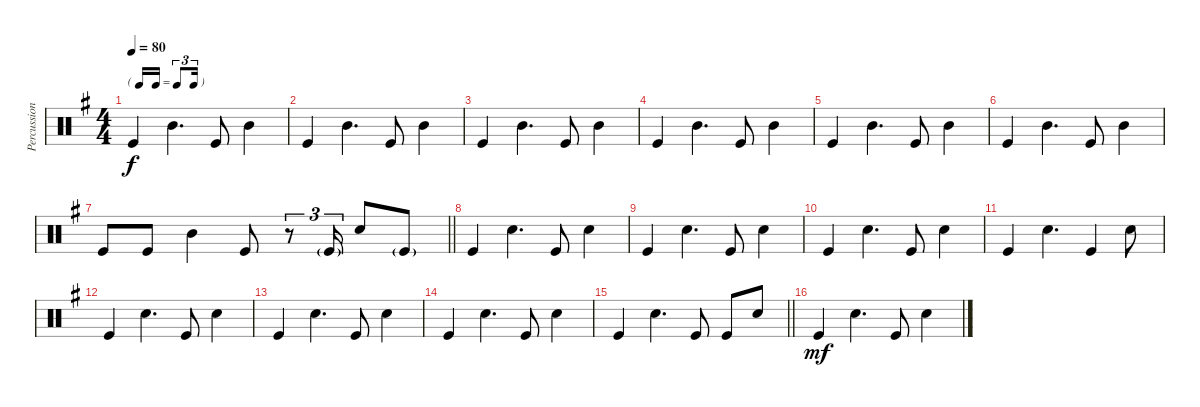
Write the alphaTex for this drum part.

\track ("Percussion" "Percussion") {instrument percussion}
\staff {score}
\articulation defaults
\ts (4 4)
\tf triplet16th
\tempo 80
\clef neutral
\ks eminor "Kick (hit)".4{dy f} "Mid Tom (hit)".4{d} "Kick (hit)".8 "Mid Tom (hit)".4
|
"Kick (hit)".4 "Mid Tom (hit)".4{d} "Kick (hit)".8 "Mid Tom (hit)".4 |
"Kick (hit)".4 "Mid Tom (hit)".4{d} "Kick (hit)".8 "Mid Tom (hit)".4 |
"Kick (hit)".4 "Mid Tom (hit)".4{d} "Kick (hit)".8 "Mid Tom (hit)".4 |
"Kick (hit)".4 "Mid Tom (hit)".4{d} "Kick (hit)".8 "Mid Tom (hit)".4 |
"Kick (hit)".4 "Mid Tom (hit)".4{d} "Kick (hit)".8 "Mid Tom (hit)".4 |
\barLineRight lightlight "Kick (hit)".8 "Kick (hit)".8 "Mid Tom (hit)".4 "Kick (hit)".8
r.8{tu (3 2)} "Kick (hit)"{g}.16{tu (3 2)} "Snare (hit) 2".8 "Kick (hit)"{g}.8 |
"Kick (hit)".4 "Snare (hit) 2".4{d} "Kick (hit)".8 "Snare (hit) 2".4 |
"Kick (hit)".4 "Snare (hit) 2".4{d} "Kick (hit)".8 "Snare (hit) 2".4 |
"Kick (hit)".4 "Snare (hit) 2".4{d} "Kick (hit)".8 "Snare (hit) 2".4 |
"Kick (hit)".4 "Snare (hit) 2".4{d} "Kick (hit)".4 "Snare (hit) 2".8 |
"Kick (hit)".4 "Snare (hit) 2".4{d} "Kick (hit)".8 "Snare (hit) 2".4 |
"Kick (hit)".4 "Snare (hit) 2".4{d} "Kick (hit)".8 "Snare (hit) 2".4 |
"Kick (hit)".4 "Snare (hit) 2".4{d} "Kick (hit)".8 "Snare (hit) 2".4 |
\barLineRight lightlight "Kick (hit)".4 "Snare (hit) 2".4{d} "Kick (hit)".8 "Kick (hit)".8 "Snare (hit) 2".8
|
"Kick (hit)".4{dy mf} "Snare (hit) 2".4{d} "Kick (hit)".8 "Snare (hit) 2".4
